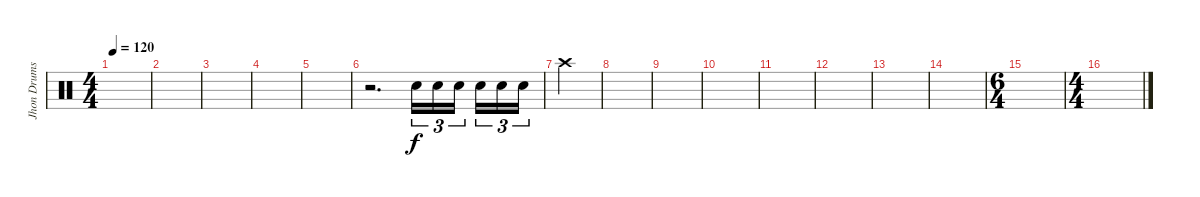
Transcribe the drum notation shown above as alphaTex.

\track ("Jhon Drums" "Jhon Drums") {instrument percussion}
\staff {score}
\articulation defaults
\ts (4 4)
\tempo 120
\clef neutral
\ks c
|
|
|
|
|
r.2{d} "Electric Snare (hit)".16{tu (3 2)} "Electric Snare (hit)".16{tu (3 2)} "Electric Snare (hit)".16{tu (3 2)} "Electric Snare (hit)".16{tu (3 2)} "Electric Snare (hit)".16{tu (3 2)} "Electric Snare (hit)".16{tu (3 2)} |
"Crash high (hit)".4 |
|
|
|
|
|
|
|
\ts (6 4)
|
\ts (4 4)
